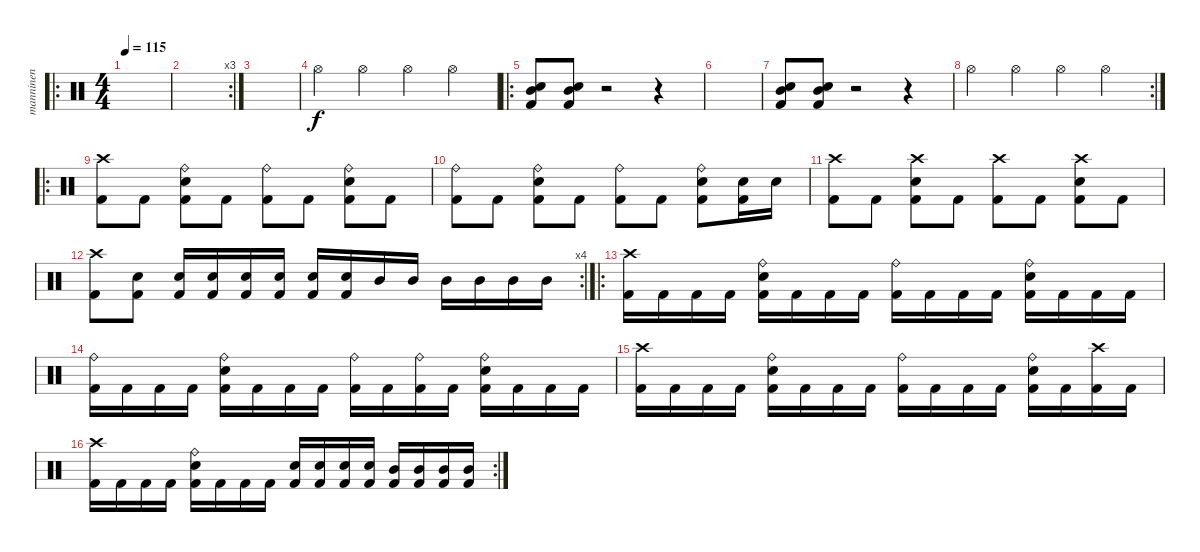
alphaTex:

\track ("manninen" "manninen") {instrument percussion}
\staff {score}
\articulation defaults
\ro
\ts (4 4)
\tempo 115
\clef neutral
\ks c
|
\rc 3
|
|
"Hi-Hat (open)".4 "Hi-Hat (open)".4 "Hi-Hat (open)".4 "Hi-Hat (open)".4 |
\ro
("Kick (hit) 2" "Mid Tom (hit)" "Electric Snare (hit)").8 ("Kick (hit) 2" "Mid Tom (hit)" "Electric Snare (hit)").8 r.2 r.4 |
|
("Kick (hit) 2" "Electric Snare (hit)" "Mid Tom (hit)").8 ("Kick (hit) 2" "Electric Snare (hit)" "Mid Tom (hit)").8 r.2 r.4 |
\rc 2 "Hi-Hat (open)".4 "Hi-Hat (open)".4 "Hi-Hat (open)".4 "Hi-Hat (open)".4
|
\ro
("Kick (hit) 2" "Crash high (hit)").8 "Kick (hit) 2".8 ("Kick (hit) 2" "Ride (bell)" "Electric Snare (hit)").8 "Kick (hit) 2".8 ("Kick (hit) 2" "Ride (bell)").8 "Kick (hit) 2".8 ("Kick (hit) 2" "Ride (bell)" "Electric Snare (hit)").8 "Kick (hit) 2".8 |
("Kick (hit) 2" "Ride (bell)").8 "Kick (hit) 2".8 ("Kick (hit) 2" "Ride (bell)" "Electric Snare (hit)").8 "Kick (hit) 2".8 ("Kick (hit) 2" "Ride (bell)").8 "Kick (hit) 2".8 ("Kick (hit) 2" "Ride (bell)" "Electric Snare (hit)").8 ("Kick (hit) 2" "Electric Snare (hit)").16 "Electric Snare (hit)".16 |
("Kick (hit) 2" "Crash high (hit)").8 "Kick (hit) 2".8 ("Kick (hit) 2" "Crash high (hit)" "Electric Snare (hit)").8 "Kick (hit) 2".8 ("Kick (hit) 2" "Crash high (hit)").8 "Kick (hit) 2".8 ("Kick (hit) 2" "Crash high (hit)" "Electric Snare (hit)").8 "Kick (hit) 2".8 |
\rc 4
("Kick (hit) 2" "Crash high (hit)").8 ("Kick (hit) 2" "Electric Snare (hit)").8 ("Kick (hit) 2" "Electric Snare (hit)").16 ("Kick (hit) 2" "Electric Snare (hit)").16 ("Kick (hit) 2" "Electric Snare (hit)").16 ("Kick (hit) 2" "Electric Snare (hit)").16 ("Kick (hit) 2" "Electric Snare (hit)").16 ("Kick (hit) 2" "Electric Snare (hit)").16 "Mid Tom (hit)".16 "Mid Tom (hit)".16 "Mid Tom (hit)".16 "Mid Tom (hit)".16 "Mid Tom (hit)".16 "Mid Tom (hit)".16 |
\ro
("Kick (hit) 2" "Crash high (hit)").16 "Kick (hit) 2".16 "Kick (hit) 2".16 "Kick (hit) 2".16 ("Kick (hit) 2" "Ride (bell)" "Electric Snare (hit)").16 "Kick (hit) 2".16 "Kick (hit) 2".16 "Kick (hit) 2".16 ("Kick (hit) 2" "Ride (bell)").16 "Kick (hit) 2".16 "Kick (hit) 2".16 "Kick (hit) 2".16 ("Kick (hit) 2" "Ride (bell)" "Electric Snare (hit)").16 "Kick (hit) 2".16 "Kick (hit) 2".16 "Kick (hit) 2".16 |
("Kick (hit) 2" "Ride (bell)").16 "Kick (hit) 2".16 "Kick (hit) 2".16 "Kick (hit) 2".16 ("Kick (hit) 2" "Ride (bell)" "Electric Snare (hit)").16 "Kick (hit) 2".16 "Kick (hit) 2".16 "Kick (hit) 2".16 ("Kick (hit) 2" "Ride (bell)").16 "Kick (hit) 2".16 ("Kick (hit) 2" "Ride (bell)").16 "Kick (hit) 2".16 ("Kick (hit) 2" "Ride (bell)" "Electric Snare (hit)").16 "Kick (hit) 2".16 "Kick (hit) 2".16 "Kick (hit) 2".16 |
("Kick (hit) 2" "Crash high (hit)").16 "Kick (hit) 2".16 "Kick (hit) 2".16 "Kick (hit) 2".16 ("Kick (hit) 2" "Ride (bell)" "Electric Snare (hit)").16 "Kick (hit) 2".16 "Kick (hit) 2".16 "Kick (hit) 2".16 ("Kick (hit) 2" "Ride (bell)").16 "Kick (hit) 2".16 "Kick (hit) 2".16 "Kick (hit) 2".16 ("Kick (hit) 2" "Ride (bell)" "Electric Snare (hit)").16 "Kick (hit) 2".16 ("Kick (hit) 2" "Crash high (hit)").16 "Kick (hit) 2".16 |
\rc 2
("Kick (hit) 2" "Crash high (hit)").16 "Kick (hit) 2".16 "Kick (hit) 2".16 "Kick (hit) 2".16 ("Kick (hit) 2" "Ride (bell)" "Electric Snare (hit)").16 "Kick (hit) 2".16 "Kick (hit) 2".16 "Kick (hit) 2".16 ("Kick (hit) 2" "Electric Snare (hit)").16 ("Kick (hit) 2" "Electric Snare (hit)").16 ("Kick (hit) 2" "Electric Snare (hit)").16 ("Kick (hit) 2" "Electric Snare (hit)").16 ("Kick (hit) 2" "Mid Tom (hit)").16 ("Kick (hit) 2" "Mid Tom (hit)").16 ("Kick (hit) 2" "Mid Tom (hit)").16 ("Kick (hit) 2" "Mid Tom (hit)").16
